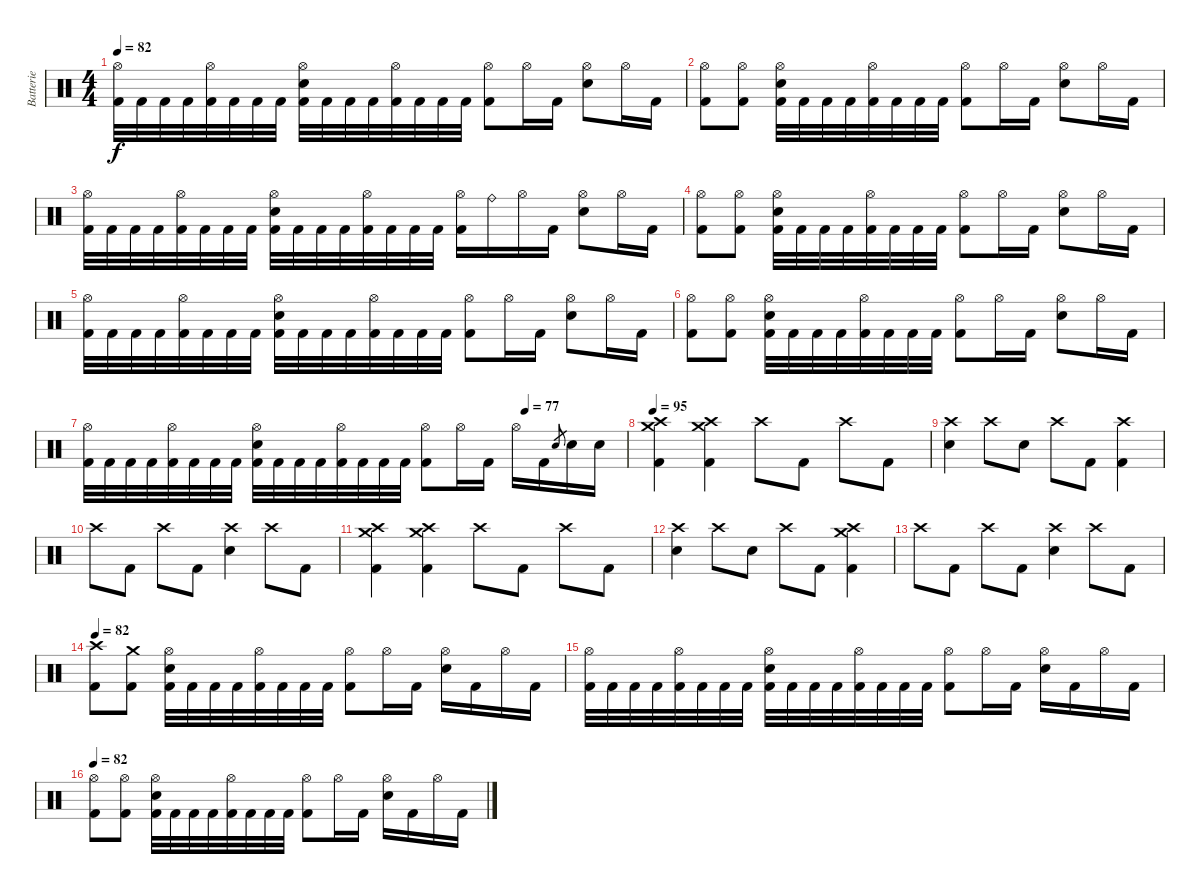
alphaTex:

\track ("Batterie" "Batterie") {instrument percussion}
\staff {score}
\articulation defaults
\ts (4 4)
\tempo 82
\clef neutral
\ks c
("Hi-Hat (open)" "Kick (hit) 2").32{dy f} "Kick (hit) 2".32 "Kick (hit) 2".32 "Kick (hit) 2".32 ("Hi-Hat (open)" "Kick (hit) 2").32 "Kick (hit) 2".32 "Kick (hit) 2".32 "Kick (hit) 2".32 ("Electric Snare (hit)" "Hi-Hat (open)" "Kick (hit) 2").32 "Kick (hit) 2".32 "Kick (hit) 2".32 "Kick (hit) 2".32 ("Hi-Hat (open)" "Kick (hit) 2").32 "Kick (hit) 2".32 "Kick (hit) 2".32 "Kick (hit) 2".32 ("Hi-Hat (open)" "Kick (hit) 2").8 "Hi-Hat (open)".16 "Kick (hit) 2".16 ("Hi-Hat (open)" "Electric Snare (hit)").8 "Hi-Hat (open)".16 "Kick (hit) 2".16 |
("Hi-Hat (open)" "Kick (hit) 2").8 ("Hi-Hat (open)" "Kick (hit) 2").8 ("Hi-Hat (open)" "Electric Snare (hit)" "Kick (hit) 2").32 "Kick (hit) 2".32 "Kick (hit) 2".32 "Kick (hit) 2".32 ("Hi-Hat (open)" "Kick (hit) 2").32 "Kick (hit) 2".32 "Kick (hit) 2".32 "Kick (hit) 2".32 ("Hi-Hat (open)" "Kick (hit) 2").8 "Hi-Hat (open)".16 "Kick (hit) 2".16 ("Hi-Hat (open)" "Electric Snare (hit)").8 "Hi-Hat (open)".16 "Kick (hit) 2".16 |
("Hi-Hat (open)" "Kick (hit) 2").32 "Kick (hit) 2".32 "Kick (hit) 2".32 "Kick (hit) 2".32 ("Hi-Hat (open)" "Kick (hit) 2").32 "Kick (hit) 2".32 "Kick (hit) 2".32 "Kick (hit) 2".32 ("Electric Snare (hit)" "Hi-Hat (open)" "Kick (hit) 2").32 "Kick (hit) 2".32 "Kick (hit) 2".32 "Kick (hit) 2".32 ("Hi-Hat (open)" "Kick (hit) 2").32 "Kick (hit) 2".32 "Kick (hit) 2".32 "Kick (hit) 2".32 ("Hi-Hat (open)" "Kick (hit) 2").16 "Ride (bell)".16 "Hi-Hat (open)".16 "Kick (hit) 2".16 ("Hi-Hat (open)" "Electric Snare (hit)").8 "Hi-Hat (open)".16 "Kick (hit) 2".16 |
("Hi-Hat (open)" "Kick (hit) 2").8 ("Hi-Hat (open)" "Kick (hit) 2").8 ("Hi-Hat (open)" "Electric Snare (hit)" "Kick (hit) 2").32 "Kick (hit) 2".32 "Kick (hit) 2".32 "Kick (hit) 2".32 ("Hi-Hat (open)" "Kick (hit) 2").32 "Kick (hit) 2".32 "Kick (hit) 2".32 "Kick (hit) 2".32 ("Hi-Hat (open)" "Kick (hit) 2").8 "Hi-Hat (open)".16 "Kick (hit) 2".16 ("Hi-Hat (open)" "Electric Snare (hit)").8 "Hi-Hat (open)".16 "Kick (hit) 2".16 |
("Hi-Hat (open)" "Kick (hit) 2").32 "Kick (hit) 2".32 "Kick (hit) 2".32 "Kick (hit) 2".32 ("Hi-Hat (open)" "Kick (hit) 2").32 "Kick (hit) 2".32 "Kick (hit) 2".32 "Kick (hit) 2".32 ("Electric Snare (hit)" "Hi-Hat (open)" "Kick (hit) 2").32 "Kick (hit) 2".32 "Kick (hit) 2".32 "Kick (hit) 2".32 ("Hi-Hat (open)" "Kick (hit) 2").32 "Kick (hit) 2".32 "Kick (hit) 2".32 "Kick (hit) 2".32 ("Hi-Hat (open)" "Kick (hit) 2").8 "Hi-Hat (open)".16 "Kick (hit) 2".16 ("Hi-Hat (open)" "Electric Snare (hit)").8 "Hi-Hat (open)".16 "Kick (hit) 2".16 |
("Hi-Hat (open)" "Kick (hit) 2").8 ("Hi-Hat (open)" "Kick (hit) 2").8 ("Hi-Hat (open)" "Electric Snare (hit)" "Kick (hit) 2").32 "Kick (hit) 2".32 "Kick (hit) 2".32 "Kick (hit) 2".32 ("Hi-Hat (open)" "Kick (hit) 2").32 "Kick (hit) 2".32 "Kick (hit) 2".32 "Kick (hit) 2".32 ("Hi-Hat (open)" "Kick (hit) 2").8 "Hi-Hat (open)".16 "Kick (hit) 2".16 ("Hi-Hat (open)" "Electric Snare (hit)").8 "Hi-Hat (open)".16 "Kick (hit) 2".16 |
\tempo (77 0.8125)
("Hi-Hat (open)" "Kick (hit) 2").32 "Kick (hit) 2".32 "Kick (hit) 2".32 "Kick (hit) 2".32 ("Hi-Hat (open)" "Kick (hit) 2").32 "Kick (hit) 2".32 "Kick (hit) 2".32 "Kick (hit) 2".32 ("Electric Snare (hit)" "Hi-Hat (open)" "Kick (hit) 2").32 "Kick (hit) 2".32 "Kick (hit) 2".32 "Kick (hit) 2".32 ("Hi-Hat (open)" "Kick (hit) 2").32 "Kick (hit) 2".32 "Kick (hit) 2".32 "Kick (hit) 2".32 ("Hi-Hat (open)" "Kick (hit) 2").8 "Hi-Hat (open)".16 "Kick (hit) 2".16 "Hi-Hat (open)".16 "Kick (hit) 2".16 "Electric Snare (hit)".8{gr} "Electric Snare (hit)".16 "Electric Snare (hit)".16 |
\tempo 150
\tempo 95
("Crash medium (hit)" "Crash high (hit)" "Kick (hit) 2").4 ("Crash high (hit)" "Crash medium (hit)" "Kick (hit) 2").4 "Crash high (hit)".8 "Kick (hit) 2".8 "Crash high (hit)".8 "Kick (hit) 2".8 |
("Crash high (hit)" "Electric Snare (hit)").4 "Crash high (hit)".8 "Electric Snare (hit)".8 "Crash high (hit)".8 "Kick (hit) 2".8 ("Crash high (hit)" "Kick (hit) 2").4 |
"Crash high (hit)".8 "Kick (hit) 2".8 "Crash high (hit)".8 "Kick (hit) 2".8 ("Crash high (hit)" "Electric Snare (hit)").4 "Crash high (hit)".8 "Kick (hit) 2".8 |
("Crash medium (hit)" "Crash high (hit)" "Kick (hit) 2").4 ("Crash medium (hit)" "Crash high (hit)" "Kick (hit) 2").4 "Crash high (hit)".8 "Kick (hit) 2".8 "Crash high (hit)".8 "Kick (hit) 2".8 |
("Crash high (hit)" "Electric Snare (hit)").4 "Crash high (hit)".8 "Electric Snare (hit)".8 "Crash high (hit)".8 "Kick (hit) 2".8 ("Crash medium (hit)" "Crash high (hit)" "Kick (hit) 2").4 |
"Crash high (hit)".8 "Kick (hit) 2".8 "Crash high (hit)".8 "Kick (hit) 2".8 ("Crash high (hit)" "Electric Snare (hit)").4 "Crash high (hit)".8 "Kick (hit) 2".8 |
\tempo 82
("Crash high (hit)" "Kick (hit) 2").8 ("Crash medium (hit)" "Kick (hit) 2").8 ("Hi-Hat (open)" "Electric Snare (hit)" "Kick (hit) 2").32 "Kick (hit) 2".32 "Kick (hit) 2".32 "Kick (hit) 2".32 ("Hi-Hat (open)" "Kick (hit) 2").32 "Kick (hit) 2".32 "Kick (hit) 2".32 "Kick (hit) 2".32 ("Hi-Hat (open)" "Kick (hit) 2").8 "Hi-Hat (open)".16 "Kick (hit) 2".16 ("Hi-Hat (open)" "Electric Snare (hit)").16 "Kick (hit) 2".16 "Hi-Hat (open)".16 "Kick (hit) 2".16 |
("Hi-Hat (open)" "Kick (hit) 2").32 "Kick (hit) 2".32 "Kick (hit) 2".32 "Kick (hit) 2".32 ("Hi-Hat (open)" "Kick (hit) 2").32 "Kick (hit) 2".32 "Kick (hit) 2".32 "Kick (hit) 2".32 ("Electric Snare (hit)" "Hi-Hat (open)" "Kick (hit) 2").32 "Kick (hit) 2".32 "Kick (hit) 2".32 "Kick (hit) 2".32 ("Hi-Hat (open)" "Kick (hit) 2").32 "Kick (hit) 2".32 "Kick (hit) 2".32 "Kick (hit) 2".32 ("Hi-Hat (open)" "Kick (hit) 2").8 "Hi-Hat (open)".16 "Kick (hit) 2".16 ("Hi-Hat (open)" "Electric Snare (hit)").16 "Kick (hit) 2".16 "Hi-Hat (open)".16 "Kick (hit) 2".16 |
\tempo 82
("Hi-Hat (open)" "Kick (hit) 2").8 ("Hi-Hat (open)" "Kick (hit) 2").8 ("Hi-Hat (open)" "Electric Snare (hit)" "Kick (hit) 2").32 "Kick (hit) 2".32 "Kick (hit) 2".32 "Kick (hit) 2".32 ("Hi-Hat (open)" "Kick (hit) 2").32 "Kick (hit) 2".32 "Kick (hit) 2".32 "Kick (hit) 2".32 ("Hi-Hat (open)" "Kick (hit) 2").8 "Hi-Hat (open)".16 "Kick (hit) 2".16 ("Hi-Hat (open)" "Electric Snare (hit)").16 "Kick (hit) 2".16 "Hi-Hat (open)".16 "Kick (hit) 2".16
